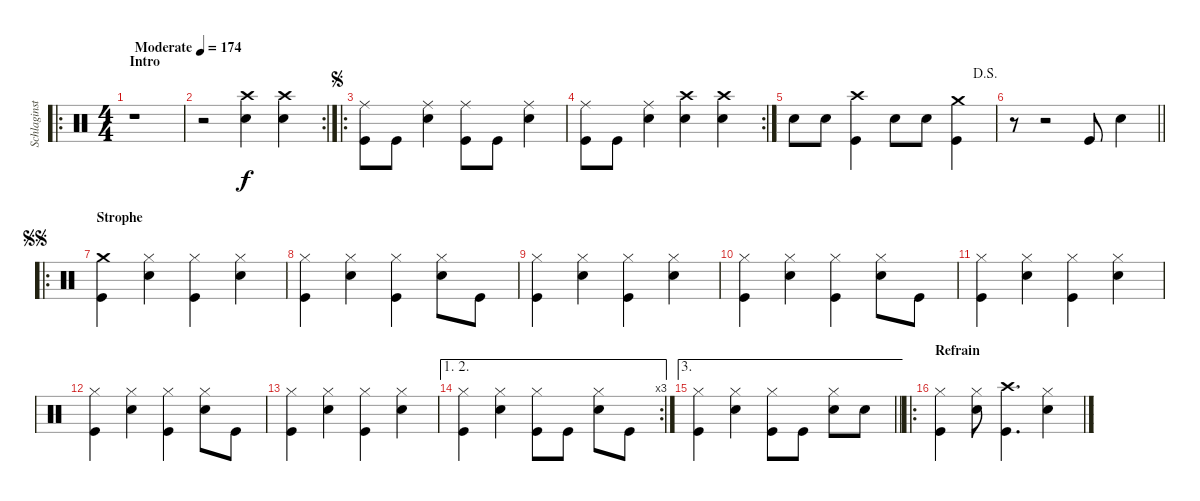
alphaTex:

\track ("Schlaginstrumente - Auswahl" "Schlaginst") {instrument percussion}
\staff {score}
\articulation defaults
\ro
\ts (4 4)
\section ("" "Intro")
\tempo (174 "Moderate")
\clef neutral
\ks c
r.1{dy f} |
\rc 2
r.2 ("Snare (hit) 2" "Crash high (hit)").4 ("Snare (hit) 2" "Crash high (hit)").4 |
\ro
\jump segno
("Kick (hit)" "Ride (middle)").8 "Kick (hit)".8 ("Snare (hit) 2" "Ride (middle)").4 ("Kick (hit)" "Ride (middle)").8 "Kick (hit)".8 ("Snare (hit) 2" "Ride (middle)").4 |
\rc 2
("Kick (hit)" "Ride (middle)").8 "Kick (hit)".8 ("Snare (hit) 2" "Ride (middle)").4 ("Snare (hit) 2" "Crash high (hit)").4 ("Snare (hit) 2" "Crash high (hit)").4 |
\jump dalsegno "Snare (hit) 2".8 "Snare (hit) 2".8
("Kick (hit)" "Crash high (hit)").4 "Snare (hit) 2".8 "Snare (hit) 2".8 ("Kick (hit)" "Crash medium (hit)").4 |
\barLineRight lightlight
r.8 r.2 "Kick (hit)".8 "Snare (hit) 2".4 |
\ro
\section ("" "Strophe")
\jump segnosegno
("Kick (hit)" "Crash medium (hit)").4 ("Snare (hit) 2" "Hi-Hat (closed)").4 ("Kick (hit)" "Hi-Hat (closed)").4 ("Snare (hit) 2" "Hi-Hat (closed)").4 |
("Kick (hit)" "Hi-Hat (closed)").4 ("Snare (hit) 2" "Hi-Hat (closed)").4 ("Kick (hit)" "Hi-Hat (closed)").4 ("Snare (hit) 2" "Hi-Hat (closed)").8 "Kick (hit)".8 |
("Kick (hit)" "Hi-Hat (closed)").4 ("Snare (hit) 2" "Hi-Hat (closed)").4 ("Kick (hit)" "Hi-Hat (closed)").4 ("Snare (hit) 2" "Hi-Hat (closed)").4 |
("Kick (hit)" "Hi-Hat (closed)").4 ("Snare (hit) 2" "Hi-Hat (closed)").4 ("Kick (hit)" "Hi-Hat (closed)").4 ("Snare (hit) 2" "Hi-Hat (closed)").8 "Kick (hit)".8 |
("Kick (hit)" "Hi-Hat (closed)").4 ("Snare (hit) 2" "Hi-Hat (closed)").4 ("Kick (hit)" "Hi-Hat (closed)").4 ("Snare (hit) 2" "Hi-Hat (closed)").4 |
("Kick (hit)" "Hi-Hat (closed)").4 ("Snare (hit) 2" "Hi-Hat (closed)").4 ("Kick (hit)" "Hi-Hat (closed)").4 ("Snare (hit) 2" "Hi-Hat (closed)").8 "Kick (hit)".8 |
("Kick (hit)" "Hi-Hat (closed)").4 ("Snare (hit) 2" "Hi-Hat (closed)").4 ("Kick (hit)" "Hi-Hat (closed)").4 ("Snare (hit) 2" "Hi-Hat (closed)").4 |
\ae (1 2)
\rc 3
("Kick (hit)" "Hi-Hat (closed)").4 ("Snare (hit) 2" "Hi-Hat (closed)").4 ("Kick (hit)" "Hi-Hat (closed)").8 "Kick (hit)".8 ("Snare (hit) 2" "Hi-Hat (closed)").8 "Kick (hit)".8 |
\ae 3
\barLineRight lightlight
("Kick (hit)" "Hi-Hat (closed)").4 ("Snare (hit) 2" "Hi-Hat (closed)").4 ("Kick (hit)" "Hi-Hat (closed)").8 "Kick (hit)".8 ("Snare (hit) 2" "Hi-Hat (closed)").8 "Snare (hit) 2".8 |
\ro
\section ("" "Refrain")
("Kick (hit)" "Hi-Hat (closed)").4 ("Snare (hit) 2" "Hi-Hat (closed)").8 ("Kick (hit)" "Crash high (hit)").4{d} ("Snare (hit) 2" "Hi-Hat (closed)").4
